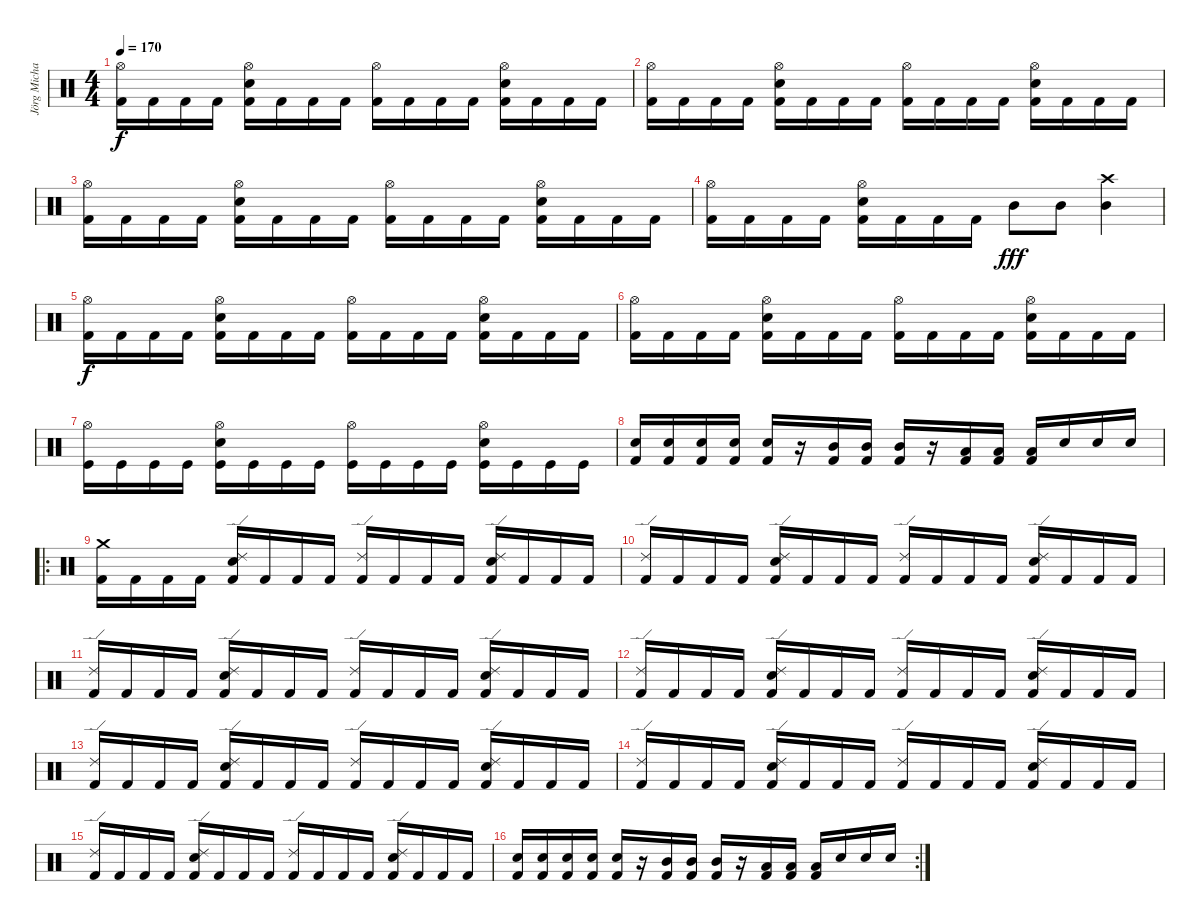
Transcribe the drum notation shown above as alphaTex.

\track ("Jörg Michael" "Jörg Micha") {instrument percussion}
\staff {score}
\articulation defaults
\ts (4 4)
\tempo 170
\clef neutral
\ks c
("Hi-Hat (open)" "Kick (hit) 2").16{dy f} "Kick (hit) 2".16 "Kick (hit) 2".16 "Kick (hit) 2".16 ("Hi-Hat (open)" "Snare (hit) 2" "Kick (hit) 2").16 "Kick (hit) 2".16 "Kick (hit) 2".16 "Kick (hit) 2".16 ("Hi-Hat (open)" "Kick (hit) 2").16 "Kick (hit) 2".16 "Kick (hit) 2".16 "Kick (hit) 2".16 ("Hi-Hat (open)" "Snare (hit) 2" "Kick (hit) 2").16 "Kick (hit) 2".16 "Kick (hit) 2".16 "Kick (hit) 2".16 |
("Hi-Hat (open)" "Kick (hit) 2").16 "Kick (hit) 2".16 "Kick (hit) 2".16 "Kick (hit) 2".16 ("Hi-Hat (open)" "Snare (hit) 2" "Kick (hit) 2").16 "Kick (hit) 2".16 "Kick (hit) 2".16 "Kick (hit) 2".16 ("Hi-Hat (open)" "Kick (hit) 2").16 "Kick (hit) 2".16 "Kick (hit) 2".16 "Kick (hit) 2".16 ("Hi-Hat (open)" "Snare (hit) 2" "Kick (hit) 2").16 "Kick (hit) 2".16 "Kick (hit) 2".16 "Kick (hit) 2".16 |
("Hi-Hat (open)" "Kick (hit) 2").16 "Kick (hit) 2".16 "Kick (hit) 2".16 "Kick (hit) 2".16 ("Hi-Hat (open)" "Snare (hit) 2" "Kick (hit) 2").16 "Kick (hit) 2".16 "Kick (hit) 2".16 "Kick (hit) 2".16 ("Hi-Hat (open)" "Kick (hit) 2").16 "Kick (hit) 2".16 "Kick (hit) 2".16 "Kick (hit) 2".16 ("Hi-Hat (open)" "Snare (hit) 2" "Kick (hit) 2").16 "Kick (hit) 2".16 "Kick (hit) 2".16 "Kick (hit) 2".16 |
("Hi-Hat (open)" "Kick (hit) 2").16 "Kick (hit) 2".16 "Kick (hit) 2".16 "Kick (hit) 2".16 ("Hi-Hat (open)" "Snare (hit) 2" "Kick (hit) 2").16 "Kick (hit) 2".16 "Kick (hit) 2".16 "Kick (hit) 2".16 "Mid Tom (hit)".8{dy fff} "Mid Tom (hit)".8 ("Crash high (hit)" "Mid Tom (hit)").4 |
("Hi-Hat (open)" "Kick (hit) 2").16{dy f} "Kick (hit) 2".16 "Kick (hit) 2".16 "Kick (hit) 2".16 ("Hi-Hat (open)" "Snare (hit) 2" "Kick (hit) 2").16 "Kick (hit) 2".16 "Kick (hit) 2".16 "Kick (hit) 2".16 ("Hi-Hat (open)" "Kick (hit) 2").16 "Kick (hit) 2".16 "Kick (hit) 2".16 "Kick (hit) 2".16 ("Hi-Hat (open)" "Snare (hit) 2" "Kick (hit) 2").16 "Kick (hit) 2".16 "Kick (hit) 2".16 "Kick (hit) 2".16 |
("Hi-Hat (open)" "Kick (hit) 2").16 "Kick (hit) 2".16 "Kick (hit) 2".16 "Kick (hit) 2".16 ("Hi-Hat (open)" "Snare (hit) 2" "Kick (hit) 2").16 "Kick (hit) 2".16 "Kick (hit) 2".16 "Kick (hit) 2".16 ("Hi-Hat (open)" "Kick (hit) 2").16 "Kick (hit) 2".16 "Kick (hit) 2".16 "Kick (hit) 2".16 ("Hi-Hat (open)" "Snare (hit) 2" "Kick (hit) 2").16 "Kick (hit) 2".16 "Kick (hit) 2".16 "Kick (hit) 2".16 |
("Hi-Hat (open)" "Kick (hit)").16 "Kick (hit)".16 "Kick (hit)".16 "Kick (hit)".16 ("Hi-Hat (open)" "Electric Snare (hit)" "Kick (hit)").16 "Kick (hit)".16 "Kick (hit)".16 "Kick (hit)".16 ("Hi-Hat (open)" "Kick (hit)").16 "Kick (hit)".16 "Kick (hit)".16 "Kick (hit)".16 ("Hi-Hat (open)" "Electric Snare (hit)" "Kick (hit)").16 "Kick (hit)".16 "Kick (hit)".16 "Kick (hit)".16 |
("Snare (hit) 2" "Kick (hit) 2").16 ("Snare (hit) 2" "Kick (hit) 2").16 ("Snare (hit) 2" "Kick (hit) 2").16 ("Snare (hit) 2" "Kick (hit) 2").16 ("Snare (hit) 2" "Kick (hit) 2").16 r.16 ("Mid Tom (hit)" "Kick (hit) 2").16 ("Mid Tom (hit)" "Kick (hit) 2").16 ("Mid Tom (hit)" "Kick (hit) 2").16 r.16 ("Low Tom (hit)" "Kick (hit) 2").16 ("Low Tom (hit)" "Kick (hit) 2").16 ("Low Tom (hit)" "Kick (hit) 2").16 "Snare (hit) 2".16 "Snare (hit) 2".16 "Snare (hit) 2".16 |
\ro
("Crash medium (hit)" "Kick (hit) 2").16 "Kick (hit) 2".16 "Kick (hit) 2".16 "Kick (hit) 2".16 ("Ride (edge) 2" "Snare (hit) 2" "Kick (hit) 2").16 "Kick (hit) 2".16 "Kick (hit) 2".16 "Kick (hit) 2".16 ("Ride (edge) 2" "Kick (hit) 2").16 "Kick (hit) 2".16 "Kick (hit) 2".16 "Kick (hit) 2".16 ("Ride (edge) 2" "Snare (hit) 2" "Kick (hit) 2").16 "Kick (hit) 2".16 "Kick (hit) 2".16 "Kick (hit) 2".16 |
("Ride (edge) 2" "Kick (hit) 2").16 "Kick (hit) 2".16 "Kick (hit) 2".16 "Kick (hit) 2".16 ("Ride (edge) 2" "Snare (hit) 2" "Kick (hit) 2").16 "Kick (hit) 2".16 "Kick (hit) 2".16 "Kick (hit) 2".16 ("Ride (edge) 2" "Kick (hit) 2").16 "Kick (hit) 2".16 "Kick (hit) 2".16 "Kick (hit) 2".16 ("Ride (edge) 2" "Snare (hit) 2" "Kick (hit) 2").16 "Kick (hit) 2".16 "Kick (hit) 2".16 "Kick (hit) 2".16 |
("Ride (edge) 2" "Kick (hit) 2").16 "Kick (hit) 2".16 "Kick (hit) 2".16 "Kick (hit) 2".16 ("Ride (edge) 2" "Snare (hit) 2" "Kick (hit) 2").16 "Kick (hit) 2".16 "Kick (hit) 2".16 "Kick (hit) 2".16 ("Ride (edge) 2" "Kick (hit) 2").16 "Kick (hit) 2".16 "Kick (hit) 2".16 "Kick (hit) 2".16 ("Ride (edge) 2" "Snare (hit) 2" "Kick (hit) 2").16 "Kick (hit) 2".16 "Kick (hit) 2".16 "Kick (hit) 2".16 |
("Ride (edge) 2" "Kick (hit) 2").16 "Kick (hit) 2".16 "Kick (hit) 2".16 "Kick (hit) 2".16 ("Ride (edge) 2" "Snare (hit) 2" "Kick (hit) 2").16 "Kick (hit) 2".16 "Kick (hit) 2".16 "Kick (hit) 2".16 ("Ride (edge) 2" "Kick (hit) 2").16 "Kick (hit) 2".16 "Kick (hit) 2".16 "Kick (hit) 2".16 ("Ride (edge) 2" "Snare (hit) 2" "Kick (hit) 2").16 "Kick (hit) 2".16 "Kick (hit) 2".16 "Kick (hit) 2".16 |
("Ride (edge) 2" "Kick (hit) 2").16 "Kick (hit) 2".16 "Kick (hit) 2".16 "Kick (hit) 2".16 ("Ride (edge) 2" "Snare (hit) 2" "Kick (hit) 2").16 "Kick (hit) 2".16 "Kick (hit) 2".16 "Kick (hit) 2".16 ("Ride (edge) 2" "Kick (hit) 2").16 "Kick (hit) 2".16 "Kick (hit) 2".16 "Kick (hit) 2".16 ("Ride (edge) 2" "Snare (hit) 2" "Kick (hit) 2").16 "Kick (hit) 2".16 "Kick (hit) 2".16 "Kick (hit) 2".16 |
("Ride (edge) 2" "Kick (hit) 2").16 "Kick (hit) 2".16 "Kick (hit) 2".16 "Kick (hit) 2".16 ("Ride (edge) 2" "Snare (hit) 2" "Kick (hit) 2").16 "Kick (hit) 2".16 "Kick (hit) 2".16 "Kick (hit) 2".16 ("Ride (edge) 2" "Kick (hit) 2").16 "Kick (hit) 2".16 "Kick (hit) 2".16 "Kick (hit) 2".16 ("Ride (edge) 2" "Snare (hit) 2" "Kick (hit) 2").16 "Kick (hit) 2".16 "Kick (hit) 2".16 "Kick (hit) 2".16 |
("Ride (edge) 2" "Kick (hit) 2").16 "Kick (hit) 2".16 "Kick (hit) 2".16 "Kick (hit) 2".16 ("Ride (edge) 2" "Snare (hit) 2" "Kick (hit) 2").16 "Kick (hit) 2".16 "Kick (hit) 2".16 "Kick (hit) 2".16 ("Ride (edge) 2" "Kick (hit) 2").16 "Kick (hit) 2".16 "Kick (hit) 2".16 "Kick (hit) 2".16 ("Ride (edge) 2" "Snare (hit) 2" "Kick (hit) 2").16 "Kick (hit) 2".16 "Kick (hit) 2".16 "Kick (hit) 2".16 |
\rc 2
("Snare (hit) 2" "Kick (hit) 2").16 ("Snare (hit) 2" "Kick (hit) 2").16 ("Snare (hit) 2" "Kick (hit) 2").16 ("Snare (hit) 2" "Kick (hit) 2").16 ("Snare (hit) 2" "Kick (hit) 2").16 r.16 ("Mid Tom (hit)" "Kick (hit) 2").16 ("Mid Tom (hit)" "Kick (hit) 2").16 ("Mid Tom (hit)" "Kick (hit) 2").16 r.16 ("Low Tom (hit)" "Kick (hit) 2").16 ("Low Tom (hit)" "Kick (hit) 2").16 ("Low Tom (hit)" "Kick (hit) 2").16 "Snare (hit) 2".16 "Snare (hit) 2".16 "Snare (hit) 2".16
